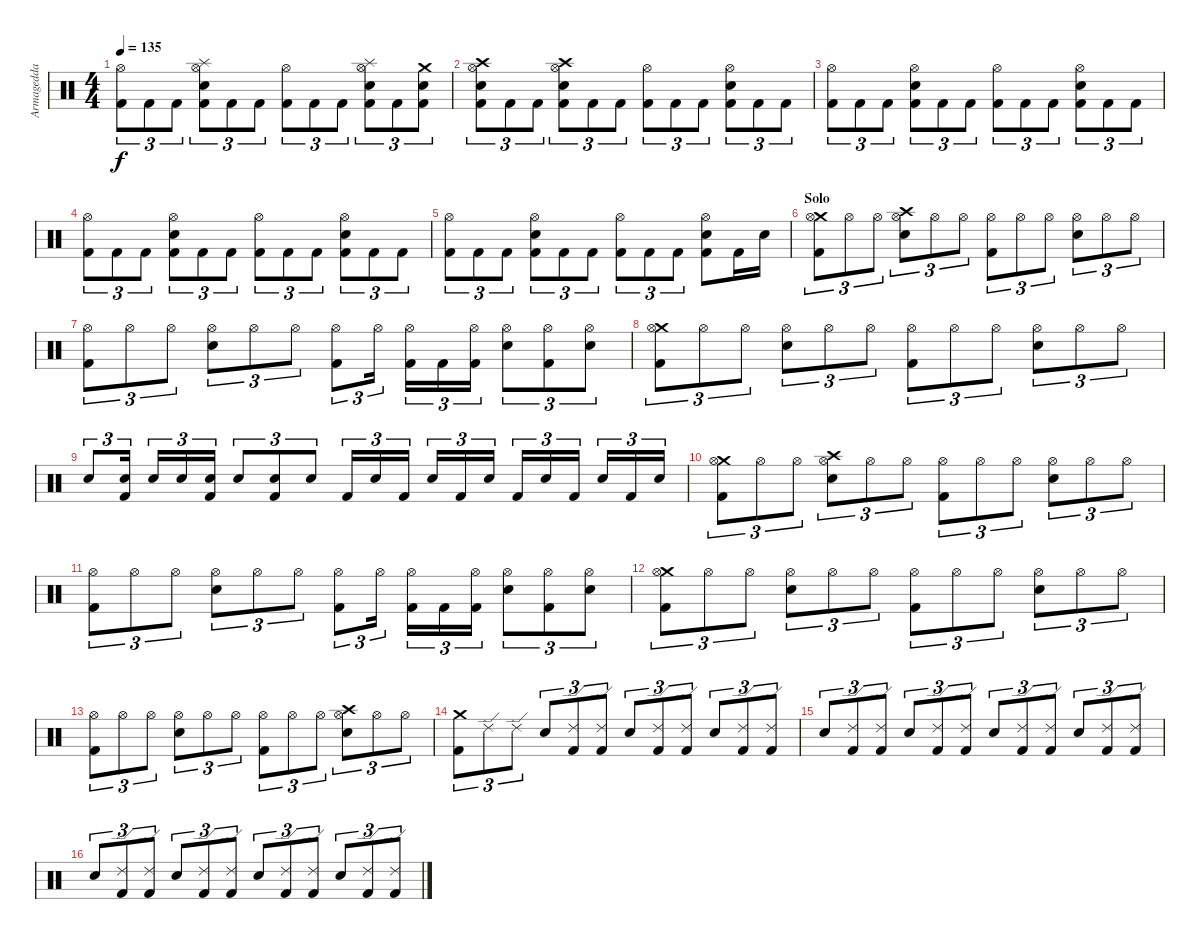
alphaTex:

\track ("Armagedda" "Armagedda") {instrument percussion}
\staff {score}
\articulation defaults
\ts (4 4)
\tempo 135
\clef neutral
\ks c
("Hi-Hat (open)" "Kick (hit) 2").8{tu (3 2) dy f} "Kick (hit) 2".8{tu (3 2)} "Kick (hit) 2".8{tu (3 2)} ("Splash (hit)" "Hi-Hat (open)" "Electric Snare (hit)" "Kick (hit) 2").8{tu (3 2)} "Kick (hit) 2".8{tu (3 2)} "Kick (hit) 2".8{tu (3 2)} ("Hi-Hat (open)" "Kick (hit) 2").8{tu (3 2)} "Kick (hit) 2".8{tu (3 2)} "Kick (hit) 2".8{tu (3 2)} ("Splash (hit)" "Hi-Hat (open)" "Electric Snare (hit)" "Kick (hit) 2").8{tu (3 2)} "Kick (hit) 2".8{tu (3 2)} ("Crash medium (hit)" "Electric Snare (hit)" "Kick (hit) 2").8{tu (3 2)} |
("Crash high (hit)" "Hi-Hat (open)" "Electric Snare (hit)" "Kick (hit) 2").8{tu (3 2)} "Kick (hit) 2".8{tu (3 2)} "Kick (hit) 2".8{tu (3 2)} ("Crash high (hit)" "Hi-Hat (open)" "Electric Snare (hit)" "Kick (hit) 2").8{tu (3 2)} "Kick (hit) 2".8{tu (3 2)} "Kick (hit) 2".8{tu (3 2)} ("Hi-Hat (open)" "Kick (hit) 2").8{tu (3 2)} "Kick (hit) 2".8{tu (3 2)} "Kick (hit) 2".8{tu (3 2)} ("Hi-Hat (open)" "Electric Snare (hit)" "Kick (hit) 2").8{tu (3 2)} "Kick (hit) 2".8{tu (3 2)} "Kick (hit) 2".8{tu (3 2)} |
("Hi-Hat (open)" "Kick (hit) 2").8{tu (3 2)} "Kick (hit) 2".8{tu (3 2)} "Kick (hit) 2".8{tu (3 2)} ("Hi-Hat (open)" "Electric Snare (hit)" "Kick (hit) 2").8{tu (3 2)} "Kick (hit) 2".8{tu (3 2)} "Kick (hit) 2".8{tu (3 2)} ("Hi-Hat (open)" "Kick (hit) 2").8{tu (3 2)} "Kick (hit) 2".8{tu (3 2)} "Kick (hit) 2".8{tu (3 2)} ("Hi-Hat (open)" "Electric Snare (hit)" "Kick (hit) 2").8{tu (3 2)} "Kick (hit) 2".8{tu (3 2)} "Kick (hit) 2".8{tu (3 2)} |
("Hi-Hat (open)" "Kick (hit) 2").8{tu (3 2)} "Kick (hit) 2".8{tu (3 2)} "Kick (hit) 2".8{tu (3 2)} ("Hi-Hat (open)" "Electric Snare (hit)" "Kick (hit) 2").8{tu (3 2)} "Kick (hit) 2".8{tu (3 2)} "Kick (hit) 2".8{tu (3 2)} ("Hi-Hat (open)" "Kick (hit) 2").8{tu (3 2)} "Kick (hit) 2".8{tu (3 2)} "Kick (hit) 2".8{tu (3 2)} ("Hi-Hat (open)" "Electric Snare (hit)" "Kick (hit) 2").8{tu (3 2)} "Kick (hit) 2".8{tu (3 2)} "Kick (hit) 2".8{tu (3 2)} |
("Hi-Hat (open)" "Kick (hit) 2").8{tu (3 2)} "Kick (hit) 2".8{tu (3 2)} "Kick (hit) 2".8{tu (3 2)} ("Hi-Hat (open)" "Electric Snare (hit)" "Kick (hit) 2").8{tu (3 2)} "Kick (hit) 2".8{tu (3 2)} "Kick (hit) 2".8{tu (3 2)} ("Hi-Hat (open)" "Kick (hit) 2").8{tu (3 2)} "Kick (hit) 2".8{tu (3 2)} "Kick (hit) 2".8{tu (3 2)} ("Hi-Hat (open)" "Electric Snare (hit)" "Kick (hit) 2").8 "Kick (hit) 2".16 "Electric Snare (hit)".16 |
\section ("" "Solo")
("Crash medium (hit)" "Hi-Hat (open)" "Kick (hit) 2").8{tu (3 2)} "Hi-Hat (open)".8{tu (3 2)} "Hi-Hat (open)".8{tu (3 2)} ("Crash high (hit)" "Hi-Hat (open)" "Electric Snare (hit)").8{tu (3 2)} "Hi-Hat (open)".8{tu (3 2)} "Hi-Hat (open)".8{tu (3 2)} ("Hi-Hat (open)" "Kick (hit) 2").8{tu (3 2)} "Hi-Hat (open)".8{tu (3 2)} "Hi-Hat (open)".8{tu (3 2)} ("Hi-Hat (open)" "Electric Snare (hit)").8{tu (3 2)} "Hi-Hat (open)".8{tu (3 2)} "Hi-Hat (open)".8{tu (3 2)} |
("Hi-Hat (open)" "Kick (hit) 2").8{tu (3 2)} "Hi-Hat (open)".8{tu (3 2)} "Hi-Hat (open)".8{tu (3 2)} ("Hi-Hat (open)" "Electric Snare (hit)").8{tu (3 2)} "Hi-Hat (open)".8{tu (3 2)} "Hi-Hat (open)".8{tu (3 2)} ("Hi-Hat (open)" "Kick (hit) 2").8{tu (3 2)} "Hi-Hat (open)".16{tu (3 2)} ("Hi-Hat (open)" "Kick (hit) 2").16{tu (3 2)} "Kick (hit) 2".16{tu (3 2)} ("Hi-Hat (open)" "Kick (hit) 2").16{tu (3 2)} ("Hi-Hat (open)" "Electric Snare (hit)").8{tu (3 2)} ("Hi-Hat (open)" "Kick (hit) 2").8{tu (3 2)} ("Hi-Hat (open)" "Electric Snare (hit)").8{tu (3 2)} |
("Crash medium (hit)" "Hi-Hat (open)" "Kick (hit) 2").8{tu (3 2)} "Hi-Hat (open)".8{tu (3 2)} "Hi-Hat (open)".8{tu (3 2)} ("Hi-Hat (open)" "Electric Snare (hit)").8{tu (3 2)} "Hi-Hat (open)".8{tu (3 2)} "Hi-Hat (open)".8{tu (3 2)} ("Hi-Hat (open)" "Kick (hit) 2").8{tu (3 2)} "Hi-Hat (open)".8{tu (3 2)} "Hi-Hat (open)".8{tu (3 2)} ("Hi-Hat (open)" "Electric Snare (hit)").8{tu (3 2)} "Hi-Hat (open)".8{tu (3 2)} "Hi-Hat (open)".8{tu (3 2)} |
"Electric Snare (hit)".8{tu (3 2)} ("Electric Snare (hit)" "Kick (hit) 2").16{tu (3 2)} "Electric Snare (hit)".16{tu (3 2)} "Electric Snare (hit)".16{tu (3 2)} ("Electric Snare (hit)" "Kick (hit) 2").16{tu (3 2)} "Electric Snare (hit)".8{tu (3 2)} ("Electric Snare (hit)" "Kick (hit) 2").8{tu (3 2)} "Electric Snare (hit)".8{tu (3 2)} "Kick (hit) 2".16{tu (3 2)} "Electric Snare (hit)".16{tu (3 2)} "Kick (hit) 2".16{tu (3 2)} "Electric Snare (hit)".16{tu (3 2)} "Kick (hit) 2".16{tu (3 2)} "Electric Snare (hit)".16{tu (3 2)} "Kick (hit) 2".16{tu (3 2)} "Electric Snare (hit)".16{tu (3 2)} "Kick (hit) 2".16{tu (3 2)} "Electric Snare (hit)".16{tu (3 2)} "Kick (hit) 2".16{tu (3 2)} "Electric Snare (hit)".16{tu (3 2)} |
("Crash medium (hit)" "Hi-Hat (open)" "Kick (hit) 2").8{tu (3 2)} "Hi-Hat (open)".8{tu (3 2)} "Hi-Hat (open)".8{tu (3 2)} ("Crash high (hit)" "Hi-Hat (open)" "Electric Snare (hit)").8{tu (3 2)} "Hi-Hat (open)".8{tu (3 2)} "Hi-Hat (open)".8{tu (3 2)} ("Hi-Hat (open)" "Kick (hit) 2").8{tu (3 2)} "Hi-Hat (open)".8{tu (3 2)} "Hi-Hat (open)".8{tu (3 2)} ("Hi-Hat (open)" "Electric Snare (hit)").8{tu (3 2)} "Hi-Hat (open)".8{tu (3 2)} "Hi-Hat (open)".8{tu (3 2)} |
("Hi-Hat (open)" "Kick (hit) 2").8{tu (3 2)} "Hi-Hat (open)".8{tu (3 2)} "Hi-Hat (open)".8{tu (3 2)} ("Hi-Hat (open)" "Electric Snare (hit)").8{tu (3 2)} "Hi-Hat (open)".8{tu (3 2)} "Hi-Hat (open)".8{tu (3 2)} ("Hi-Hat (open)" "Kick (hit) 2").8{tu (3 2)} "Hi-Hat (open)".16{tu (3 2)} ("Hi-Hat (open)" "Kick (hit) 2").16{tu (3 2)} "Kick (hit) 2".16{tu (3 2)} ("Hi-Hat (open)" "Kick (hit) 2").16{tu (3 2)} ("Hi-Hat (open)" "Electric Snare (hit)").8{tu (3 2)} ("Hi-Hat (open)" "Kick (hit) 2").8{tu (3 2)} ("Hi-Hat (open)" "Electric Snare (hit)").8{tu (3 2)} |
("Crash medium (hit)" "Hi-Hat (open)" "Kick (hit) 2").8{tu (3 2)} "Hi-Hat (open)".8{tu (3 2)} "Hi-Hat (open)".8{tu (3 2)} ("Hi-Hat (open)" "Electric Snare (hit)").8{tu (3 2)} "Hi-Hat (open)".8{tu (3 2)} "Hi-Hat (open)".8{tu (3 2)} ("Hi-Hat (open)" "Kick (hit) 2").8{tu (3 2)} "Hi-Hat (open)".8{tu (3 2)} "Hi-Hat (open)".8{tu (3 2)} ("Hi-Hat (open)" "Electric Snare (hit)").8{tu (3 2)} "Hi-Hat (open)".8{tu (3 2)} "Hi-Hat (open)".8{tu (3 2)} |
("Hi-Hat (open)" "Kick (hit) 2").8{tu (3 2)} "Hi-Hat (open)".8{tu (3 2)} "Hi-Hat (open)".8{tu (3 2)} ("Hi-Hat (open)" "Electric Snare (hit)").8{tu (3 2)} "Hi-Hat (open)".8{tu (3 2)} "Hi-Hat (open)".8{tu (3 2)} ("Hi-Hat (open)" "Kick (hit) 2").8{tu (3 2)} "Hi-Hat (open)".8{tu (3 2)} "Hi-Hat (open)".8{tu (3 2)} ("Crash high (hit)" "Hi-Hat (open)" "Electric Snare (hit)").8{tu (3 2)} "Hi-Hat (open)".8{tu (3 2)} "Hi-Hat (open)".8{tu (3 2)} |
("Crash medium (hit)" "Kick (hit) 2").8{tu (3 2)} "Ride (edge) 2".8{tu (3 2)} "Ride (edge) 2".8{tu (3 2)} "Electric Snare (hit)".8{tu (3 2)} ("Ride (edge) 2" "Kick (hit) 2").8{tu (3 2)} ("Ride (edge) 2" "Kick (hit) 2").8{tu (3 2)} "Electric Snare (hit)".8{tu (3 2)} ("Ride (edge) 2" "Kick (hit) 2").8{tu (3 2)} ("Ride (edge) 2" "Kick (hit) 2").8{tu (3 2)} "Electric Snare (hit)".8{tu (3 2)} ("Ride (edge) 2" "Kick (hit) 2").8{tu (3 2)} ("Ride (edge) 2" "Kick (hit) 2").8{tu (3 2)} |
"Electric Snare (hit)".8{tu (3 2)} ("Ride (edge) 2" "Kick (hit) 2").8{tu (3 2)} ("Ride (edge) 2" "Kick (hit) 2").8{tu (3 2)} "Electric Snare (hit)".8{tu (3 2)} ("Ride (edge) 2" "Kick (hit) 2").8{tu (3 2)} ("Ride (edge) 2" "Kick (hit) 2").8{tu (3 2)} "Electric Snare (hit)".8{tu (3 2)} ("Ride (edge) 2" "Kick (hit) 2").8{tu (3 2)} ("Ride (edge) 2" "Kick (hit) 2").8{tu (3 2)} "Electric Snare (hit)".8{tu (3 2)} ("Ride (edge) 2" "Kick (hit) 2").8{tu (3 2)} ("Ride (edge) 2" "Kick (hit) 2").8{tu (3 2)} |
"Electric Snare (hit)".8{tu (3 2)} ("Ride (edge) 2" "Kick (hit) 2").8{tu (3 2)} ("Ride (edge) 2" "Kick (hit) 2").8{tu (3 2)} "Electric Snare (hit)".8{tu (3 2)} ("Ride (edge) 2" "Kick (hit) 2").8{tu (3 2)} ("Ride (edge) 2" "Kick (hit) 2").8{tu (3 2)} "Electric Snare (hit)".8{tu (3 2)} ("Ride (edge) 2" "Kick (hit) 2").8{tu (3 2)} ("Ride (edge) 2" "Kick (hit) 2").8{tu (3 2)} "Electric Snare (hit)".8{tu (3 2)} ("Ride (edge) 2" "Kick (hit) 2").8{tu (3 2)} ("Ride (edge) 2" "Kick (hit) 2").8{tu (3 2)}
